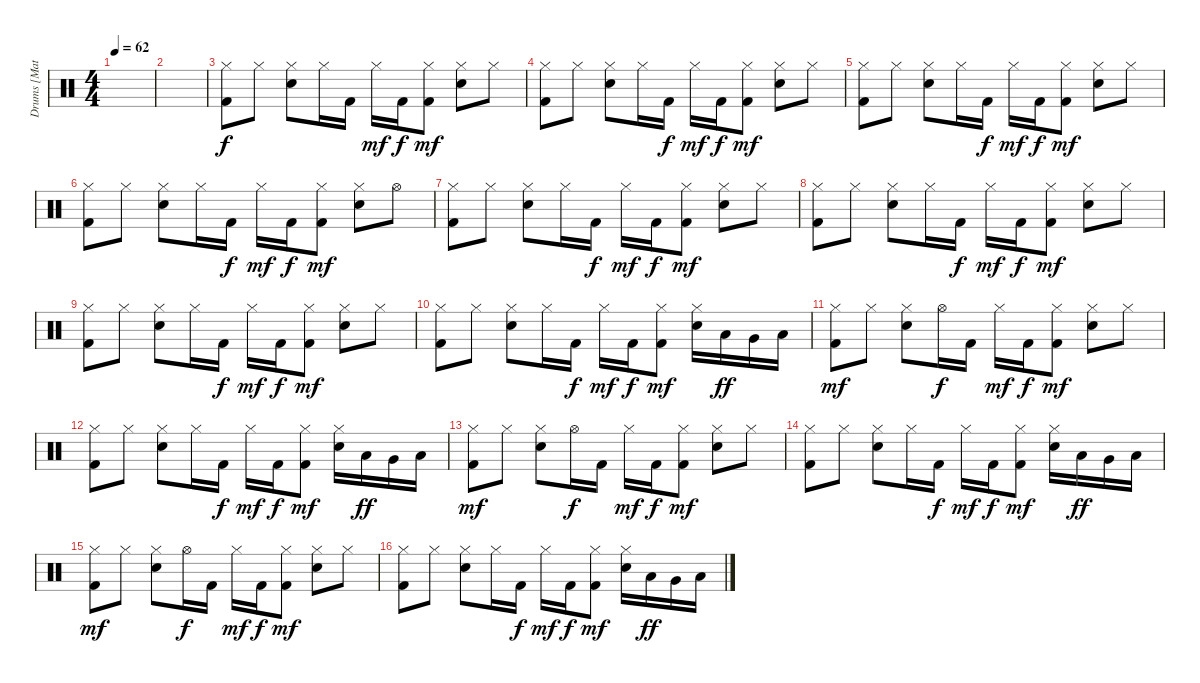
\track ("Drums [Matt]" "Drums [Mat") {instrument percussion}
\staff {score}
\articulation defaults
\ts (4 4)
\tempo 62
\clef neutral
\ks c
|
|
("Hi-Hat (closed)" "Kick (hit) 2").8 "Hi-Hat (closed)".8 ("Hi-Hat (closed)" "Snare (hit) 2").8 "Hi-Hat (closed)".16 "Kick (hit) 2".16{dy f} "Hi-Hat (closed)".16{dy mf} "Kick (hit) 2".16{dy f} ("Hi-Hat (closed)" "Kick (hit) 2").8{dy mf} ("Hi-Hat (closed)" "Snare (hit) 2").8 "Hi-Hat (closed)".8 |
("Hi-Hat (closed)" "Kick (hit) 2").8 "Hi-Hat (closed)".8 ("Hi-Hat (closed)" "Snare (hit) 2").8 "Hi-Hat (closed)".16 "Kick (hit) 2".16{dy f} "Hi-Hat (closed)".16{dy mf} "Kick (hit) 2".16{dy f} ("Hi-Hat (closed)" "Kick (hit) 2").8{dy mf} ("Hi-Hat (closed)" "Snare (hit) 2").8 "Hi-Hat (closed)".8 |
("Hi-Hat (closed)" "Kick (hit) 2").8 "Hi-Hat (closed)".8 ("Hi-Hat (closed)" "Snare (hit) 2").8 "Hi-Hat (closed)".16 "Kick (hit) 2".16{dy f} "Hi-Hat (closed)".16{dy mf} "Kick (hit) 2".16{dy f} ("Hi-Hat (closed)" "Kick (hit) 2").8{dy mf} ("Hi-Hat (closed)" "Snare (hit) 2").8 "Hi-Hat (closed)".8 |
("Hi-Hat (closed)" "Kick (hit) 2").8 "Hi-Hat (closed)".8 ("Hi-Hat (closed)" "Snare (hit) 2").8 "Hi-Hat (closed)".16 "Kick (hit) 2".16{dy f} "Hi-Hat (closed)".16{dy mf} "Kick (hit) 2".16{dy f} ("Hi-Hat (closed)" "Kick (hit) 2").8{dy mf} ("Hi-Hat (closed)" "Snare (hit) 2").8 "Hi-Hat (open)".8 |
("Hi-Hat (closed)" "Kick (hit) 2").8 "Hi-Hat (closed)".8 ("Hi-Hat (closed)" "Snare (hit) 2").8 "Hi-Hat (closed)".16 "Kick (hit) 2".16{dy f} "Hi-Hat (closed)".16{dy mf} "Kick (hit) 2".16{dy f} ("Hi-Hat (closed)" "Kick (hit) 2").8{dy mf} ("Hi-Hat (closed)" "Snare (hit) 2").8 "Hi-Hat (closed)".8 |
("Hi-Hat (closed)" "Kick (hit) 2").8 "Hi-Hat (closed)".8 ("Hi-Hat (closed)" "Snare (hit) 2").8 "Hi-Hat (closed)".16 "Kick (hit) 2".16{dy f} "Hi-Hat (closed)".16{dy mf} "Kick (hit) 2".16{dy f} ("Hi-Hat (closed)" "Kick (hit) 2").8{dy mf} ("Hi-Hat (closed)" "Snare (hit) 2").8 "Hi-Hat (closed)".8 |
("Hi-Hat (closed)" "Kick (hit) 2").8 "Hi-Hat (closed)".8 ("Hi-Hat (closed)" "Snare (hit) 2").8 "Hi-Hat (closed)".16 "Kick (hit) 2".16{dy f} "Hi-Hat (closed)".16{dy mf} "Kick (hit) 2".16{dy f} ("Hi-Hat (closed)" "Kick (hit) 2").8{dy mf} ("Hi-Hat (closed)" "Snare (hit) 2").8 "Hi-Hat (closed)".8 |
("Hi-Hat (closed)" "Kick (hit) 2").8 "Hi-Hat (closed)".8 ("Hi-Hat (closed)" "Snare (hit) 2").8 "Hi-Hat (closed)".16 "Kick (hit) 2".16{dy f} "Hi-Hat (closed)".16{dy mf} "Kick (hit) 2".16{dy f} ("Hi-Hat (closed)" "Kick (hit) 2").8{dy mf} ("Hi-Hat (closed)" "Snare (hit) 2").16 "Low Tom (hit)".16{dy ff} "Very Low Tom (hit)".16 "Low Floor Tom (hit)".16 |
("Hi-Hat (closed)" "Kick (hit) 2").8{dy mf} "Hi-Hat (closed)".8 ("Hi-Hat (closed)" "Snare (hit) 2").8 "Hi-Hat (open)".16{dy f} "Kick (hit) 2".16 "Hi-Hat (closed)".16{dy mf} "Kick (hit) 2".16{dy f} ("Hi-Hat (closed)" "Kick (hit) 2").8{dy mf} ("Hi-Hat (closed)" "Snare (hit) 2").8 "Hi-Hat (closed)".8 |
("Hi-Hat (closed)" "Kick (hit) 2").8 "Hi-Hat (closed)".8 ("Hi-Hat (closed)" "Snare (hit) 2").8 "Hi-Hat (closed)".16 "Kick (hit) 2".16{dy f} "Hi-Hat (closed)".16{dy mf} "Kick (hit) 2".16{dy f} ("Hi-Hat (closed)" "Kick (hit) 2").8{dy mf} ("Hi-Hat (closed)" "Snare (hit) 2").16 "Low Tom (hit)".16{dy ff} "Very Low Tom (hit)".16 "Low Floor Tom (hit)".16 |
("Hi-Hat (closed)" "Kick (hit) 2").8{dy mf} "Hi-Hat (closed)".8 ("Hi-Hat (closed)" "Snare (hit) 2").8 "Hi-Hat (open)".16{dy f} "Kick (hit) 2".16 "Hi-Hat (closed)".16{dy mf} "Kick (hit) 2".16{dy f} ("Hi-Hat (closed)" "Kick (hit) 2").8{dy mf} ("Hi-Hat (closed)" "Snare (hit) 2").8 "Hi-Hat (closed)".8 |
("Hi-Hat (closed)" "Kick (hit) 2").8 "Hi-Hat (closed)".8 ("Hi-Hat (closed)" "Snare (hit) 2").8 "Hi-Hat (closed)".16 "Kick (hit) 2".16{dy f} "Hi-Hat (closed)".16{dy mf} "Kick (hit) 2".16{dy f} ("Hi-Hat (closed)" "Kick (hit) 2").8{dy mf} ("Hi-Hat (closed)" "Snare (hit) 2").16 "Low Tom (hit)".16{dy ff} "Very Low Tom (hit)".16 "Low Floor Tom (hit)".16 |
("Hi-Hat (closed)" "Kick (hit) 2").8{dy mf} "Hi-Hat (closed)".8 ("Hi-Hat (closed)" "Snare (hit) 2").8 "Hi-Hat (open)".16{dy f} "Kick (hit) 2".16 "Hi-Hat (closed)".16{dy mf} "Kick (hit) 2".16{dy f} ("Hi-Hat (closed)" "Kick (hit) 2").8{dy mf} ("Hi-Hat (closed)" "Snare (hit) 2").8 "Hi-Hat (closed)".8 |
("Hi-Hat (closed)" "Kick (hit) 2").8 "Hi-Hat (closed)".8 ("Hi-Hat (closed)" "Snare (hit) 2").8 "Hi-Hat (closed)".16 "Kick (hit) 2".16{dy f} "Hi-Hat (closed)".16{dy mf} "Kick (hit) 2".16{dy f} ("Hi-Hat (closed)" "Kick (hit) 2").8{dy mf} ("Hi-Hat (closed)" "Snare (hit) 2").16 "Low Tom (hit)".16{dy ff} "Very Low Tom (hit)".16 "Low Floor Tom (hit)".16
